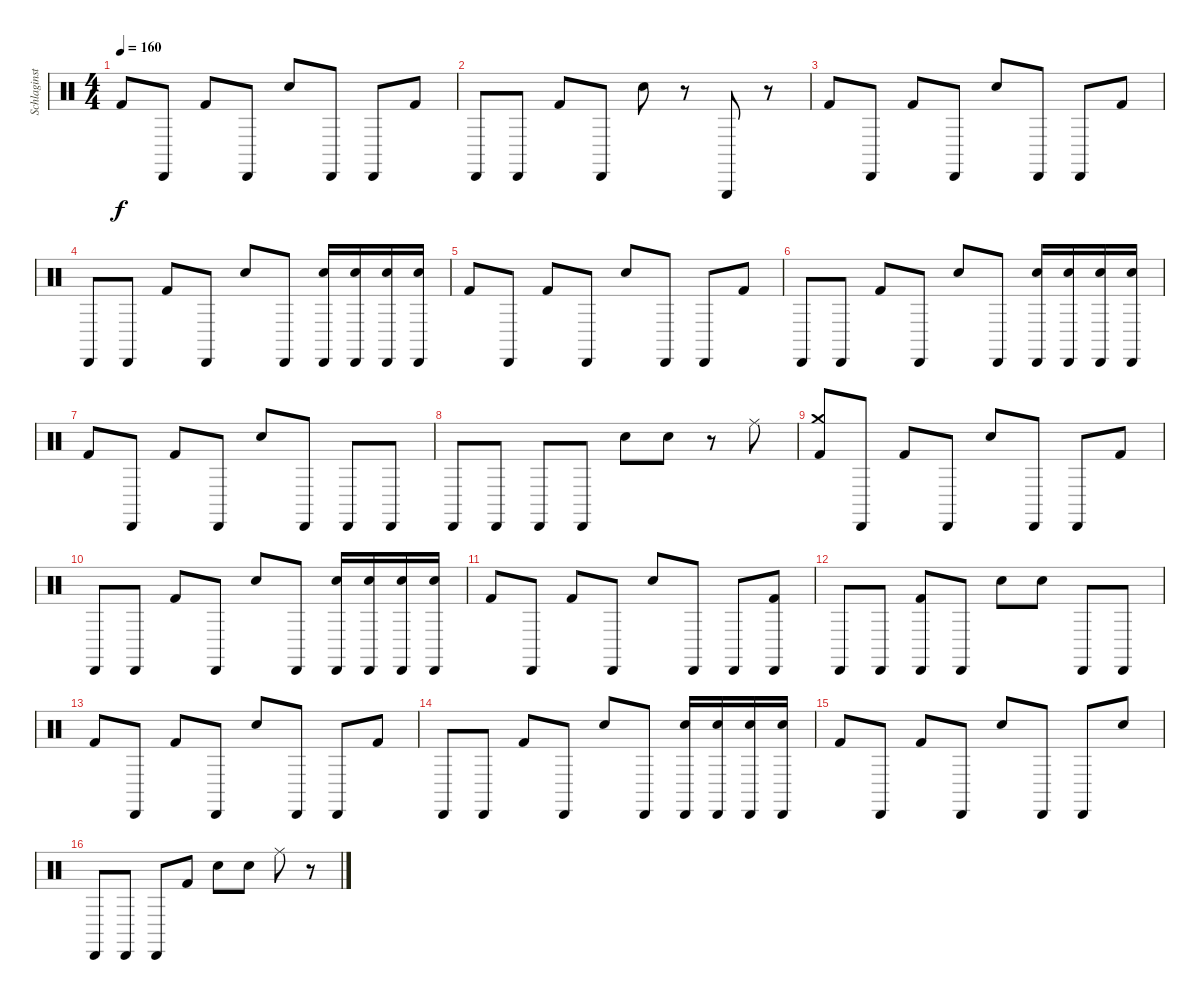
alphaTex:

\track ("Schlaginstrumente - Auswahl" "Schlaginst") {instrument percussion}
\staff {score}
\articulation defaults
\ts (4 4)
\tempo 160
\clef neutral
\ks c "Kick (hit) 2".8{dy f} "Cabasa (hit)".8 "Kick (hit) 2".8 "Cabasa (hit)".8 "Snare (hit) 2".8 "Cabasa (hit)".8 "Cabasa (hit)".8 "Kick (hit) 2".8
|
"Cabasa (hit)".8 "Cabasa (hit)".8 "Kick (hit) 2".8 "Cabasa (hit)".8 "Snare (hit) 2".8 r.8 "Triangle (hit)".8 r.8 |
"Kick (hit) 2".8 "Cabasa (hit)".8 "Kick (hit) 2".8 "Cabasa (hit)".8 "Snare (hit) 2".8 "Cabasa (hit)".8 "Cabasa (hit)".8 "Kick (hit) 2".8 |
"Cabasa (hit)".8 "Cabasa (hit)".8 "Kick (hit) 2".8 "Cabasa (hit)".8 "Snare (hit) 2".8 "Cabasa (hit)".8 ("Cabasa (hit)" "Snare (hit) 2").16 ("Cabasa (hit)" "Snare (hit) 2").16 ("Cabasa (hit)" "Snare (hit) 2").16 ("Cabasa (hit)" "Snare (hit) 2").16 |
"Kick (hit) 2".8 "Cabasa (hit)".8 "Kick (hit) 2".8 "Cabasa (hit)".8 "Snare (hit) 2".8 "Cabasa (hit)".8 "Cabasa (hit)".8 "Kick (hit) 2".8 |
"Cabasa (hit)".8 "Cabasa (hit)".8 "Kick (hit) 2".8 "Cabasa (hit)".8 "Snare (hit) 2".8 "Cabasa (hit)".8 ("Cabasa (hit)" "Snare (hit) 2").16 ("Cabasa (hit)" "Snare (hit) 2").16 ("Cabasa (hit)" "Snare (hit) 2").16 ("Cabasa (hit)" "Snare (hit) 2").16 |
"Kick (hit) 2".8 "Cabasa (hit)".8 "Kick (hit) 2".8 "Cabasa (hit)".8 "Snare (hit) 2".8 "Cabasa (hit)".8 "Cabasa (hit)".8 "Cabasa (hit)".8 |
"Cabasa (hit)".8 "Cabasa (hit)".8 "Cabasa (hit)".8 "Cabasa (hit)".8 "Snare (hit) 2".8 "Snare (hit) 2".8 r.8 "Ride (middle)".8 |
("Crash medium (hit)" "Kick (hit) 2").8 "Cabasa (hit)".8 "Kick (hit) 2".8 "Cabasa (hit)".8 "Snare (hit) 2".8 "Cabasa (hit)".8 "Cabasa (hit)".8 "Kick (hit) 2".8 |
"Cabasa (hit)".8 "Cabasa (hit)".8 "Kick (hit) 2".8 "Cabasa (hit)".8 "Snare (hit) 2".8 "Cabasa (hit)".8 ("Cabasa (hit)" "Snare (hit) 2").16 ("Cabasa (hit)" "Snare (hit) 2").16 ("Cabasa (hit)" "Snare (hit) 2").16 ("Cabasa (hit)" "Snare (hit) 2").16 |
"Kick (hit) 2".8 "Cabasa (hit)".8 "Kick (hit) 2".8 "Cabasa (hit)".8 "Snare (hit) 2".8 "Cabasa (hit)".8 "Cabasa (hit)".8 ("Cabasa (hit)" "Kick (hit) 2").8 |
"Cabasa (hit)".8 "Cabasa (hit)".8 ("Cabasa (hit)" "Kick (hit) 2").8 "Cabasa (hit)".8 "Snare (hit) 2".8 "Snare (hit) 2".8 "Cabasa (hit)".8 "Cabasa (hit)".8 |
"Kick (hit) 2".8 "Cabasa (hit)".8 "Kick (hit) 2".8 "Cabasa (hit)".8 "Snare (hit) 2".8 "Cabasa (hit)".8 "Cabasa (hit)".8 "Kick (hit) 2".8 |
"Cabasa (hit)".8 "Cabasa (hit)".8 "Kick (hit) 2".8 "Cabasa (hit)".8 "Snare (hit) 2".8 "Cabasa (hit)".8 ("Cabasa (hit)" "Snare (hit) 2").16 ("Cabasa (hit)" "Snare (hit) 2").16 ("Cabasa (hit)" "Snare (hit) 2").16 ("Cabasa (hit)" "Snare (hit) 2").16 |
"Kick (hit) 2".8 "Cabasa (hit)".8 "Kick (hit) 2".8 "Cabasa (hit)".8 "Snare (hit) 2".8 "Cabasa (hit)".8 "Cabasa (hit)".8 "Snare (hit) 2".8 |
"Cabasa (hit)".8 "Cabasa (hit)".8 "Cabasa (hit)".8 "Kick (hit) 2".8 "Snare (hit) 2".8 "Snare (hit) 2".8 "Ride (middle)".8 r.8
